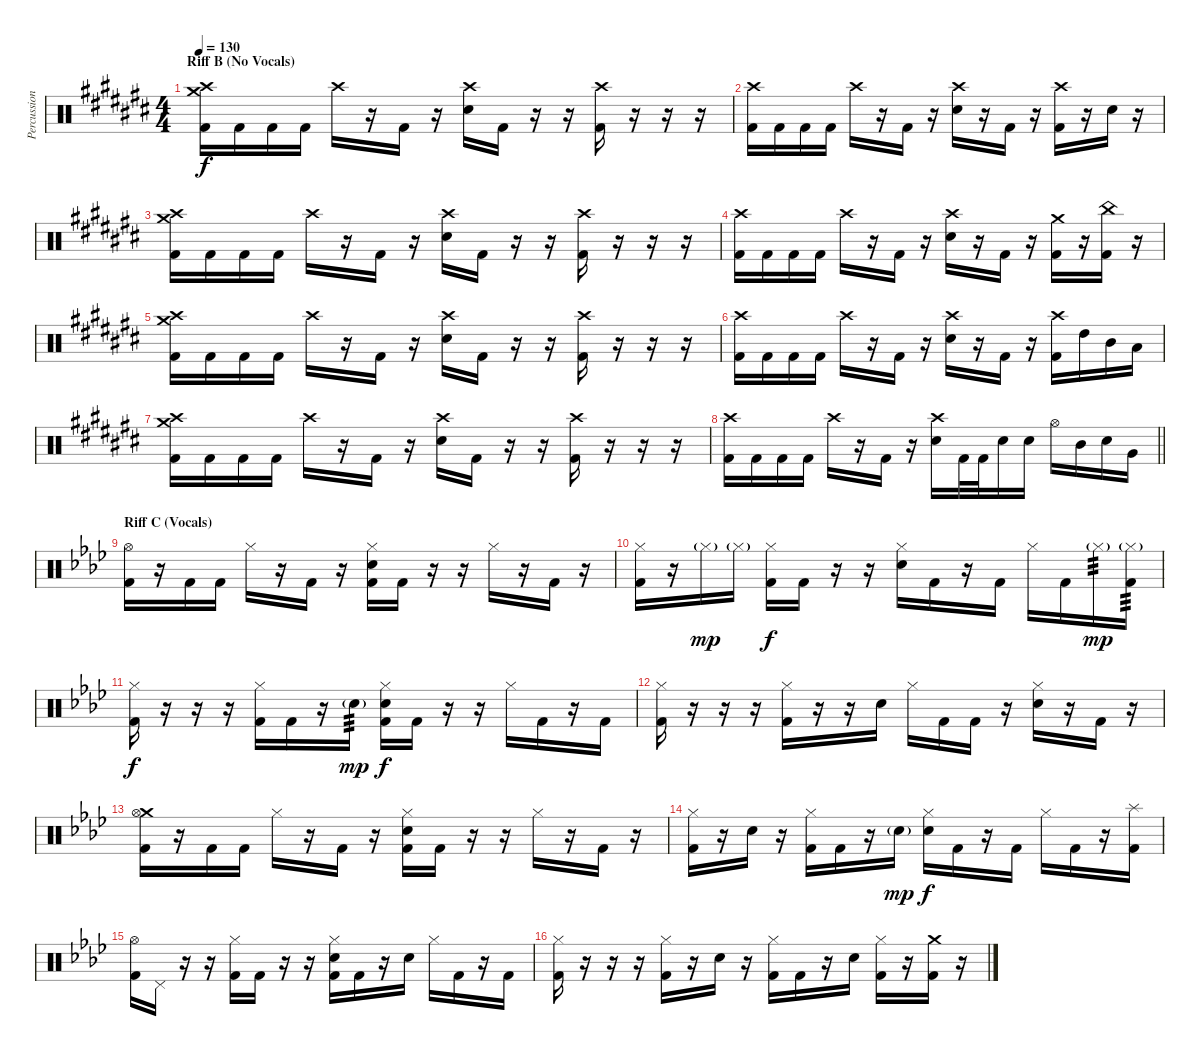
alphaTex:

\track ("Percussion" "Percussion") {instrument percussion}
\staff {score}
\articulation defaults
\ts (4 4)
\section ("" "Riff B (No Vocals)")
\tempo 130
\clef neutral
\ks a#minor
("Crash high (hit)" "Crash medium (hit)" "Kick (hit) 2").16{dy f} "Kick (hit) 2".16 "Kick (hit) 2".16 "Kick (hit) 2".16 "Crash high (hit)".16 r.16 "Kick (hit) 2".16 r.16 ("Crash high (hit)" "Electric Snare (hit)").16 "Kick (hit) 2".16 r.16 r.16 ("Crash high (hit)" "Kick (hit) 2").16 r.16 r.16 r.16 |
("Crash high (hit)" "Kick (hit) 2").16 "Kick (hit) 2".16 "Kick (hit) 2".16 "Kick (hit) 2".16 "Crash high (hit)".16 r.16 "Kick (hit) 2".16 r.16 ("Crash high (hit)" "Electric Snare (hit)").16 r.16 "Kick (hit) 2".16 r.16 ("Crash high (hit)" "Kick (hit) 2").16 r.16 "Electric Snare (hit)".16 r.16 |
("Crash high (hit)" "Crash medium (hit)" "Kick (hit) 2").16 "Kick (hit) 2".16 "Kick (hit) 2".16 "Kick (hit) 2".16 "Crash high (hit)".16 r.16 "Kick (hit) 2".16 r.16 ("Crash high (hit)" "Electric Snare (hit)").16 "Kick (hit) 2".16 r.16 r.16 ("Crash high (hit)" "Kick (hit) 2").16 r.16 r.16 r.16 |
("Crash high (hit)" "Kick (hit) 2").16 "Kick (hit) 2".16 "Kick (hit) 2".16 "Kick (hit) 2".16 "Crash high (hit)".16 r.16 "Kick (hit) 2".16 r.16 ("Crash high (hit)" "Electric Snare (hit)").16 r.16 "Kick (hit) 2".16 r.16 ("Crash medium (hit)" "Kick (hit) 2").16 r.16 ("China (hit)" "Kick (hit) 2").16 r.16 |
("Crash high (hit)" "Crash medium (hit)" "Kick (hit) 2").16 "Kick (hit) 2".16 "Kick (hit) 2".16 "Kick (hit) 2".16 "Crash high (hit)".16 r.16 "Kick (hit) 2".16 r.16 ("Crash high (hit)" "Electric Snare (hit)").16 "Kick (hit) 2".16 r.16 r.16 ("Crash high (hit)" "Kick (hit) 2").16 r.16 r.16 r.16 |
("Crash high (hit)" "Kick (hit) 2").16 "Kick (hit) 2".16 "Kick (hit) 2".16 "Kick (hit) 2".16 "Crash high (hit)".16 r.16 "Kick (hit) 2".16 r.16 ("Crash high (hit)" "Electric Snare (hit)").16 r.16 "Kick (hit) 2".16 r.16 ("Crash high (hit)" "Kick (hit) 2").16 "High Tom (hit)".16 "Mid Tom (hit)".16 "Low Tom (hit)".16 |
("Crash high (hit)" "Crash medium (hit)" "Kick (hit) 2").16 "Kick (hit) 2".16 "Kick (hit) 2".16 "Kick (hit) 2".16 "Crash high (hit)".16 r.16 "Kick (hit) 2".16 r.16 ("Crash high (hit)" "Electric Snare (hit)").16 "Kick (hit) 2".16 r.16 r.16 ("Crash high (hit)" "Kick (hit) 2").16 r.16 r.16 r.16 |
\barLineRight lightlight
("Crash high (hit)" "Kick (hit) 2").16 "Kick (hit) 2".16 "Kick (hit) 2".16 "Kick (hit) 2".16 "Crash high (hit)".16 r.16 "Kick (hit) 2".16 r.16 ("Crash high (hit)" "Electric Snare (hit)").16 "Kick (hit) 2".32 "Kick (hit) 2".32 "Electric Snare (hit)".16 "Electric Snare (hit)".16 "Hi-Hat (open)".16 "Mid Tom (hit)".16 "Electric Snare (hit)".16 "Very Low Tom (hit)".16 |
\section ("" "Riff C (Vocals)")
\ks fminor
("Hi-Hat (open)" "Kick (hit) 2").16 r.16 "Kick (hit) 2".16 "Kick (hit) 2".16 "Hi-Hat (closed)".16 r.16 "Kick (hit) 2".16 r.16 ("Hi-Hat (closed)" "Electric Snare (hit)" "Kick (hit) 2").16 "Kick (hit) 2".16 r.16 r.16 "Hi-Hat (closed)".16 r.16 "Kick (hit) 2".16 r.16 |
("Hi-Hat (closed)" "Kick (hit) 2").16 r.16 "Hi-Hat (closed)"{g}.16{dy mp} "Hi-Hat (closed)"{g}.16 ("Hi-Hat (closed)" "Kick (hit) 2").16{dy f} "Kick (hit) 2".16 r.16 r.16 ("Hi-Hat (closed)" "Electric Snare (hit)").16 "Kick (hit) 2".16 r.16 "Kick (hit) 2".16 "Hi-Hat (closed)".16 "Kick (hit) 2".16 "Hi-Hat (closed)"{g}.16{tp 3 dy mp} ("Hi-Hat (closed)"{g} "Kick (hit) 2").16{tp 3} |
("Hi-Hat (closed)" "Kick (hit) 2").16{dy f} r.16 r.16 r.16 ("Hi-Hat (closed)" "Kick (hit) 2").16 "Kick (hit) 2".16 r.16 "Electric Snare (hit)"{g}.16{tp 3 dy mp} ("Hi-Hat (closed)" "Electric Snare (hit)" "Kick (hit) 2").16{dy f} "Kick (hit) 2".16 r.16 r.16 "Hi-Hat (closed)".16 "Kick (hit) 2".16 r.16 "Kick (hit) 2".16 |
("Hi-Hat (closed)" "Kick (hit) 2").16 r.16 r.16 r.16 ("Hi-Hat (closed)" "Kick (hit) 2").16 r.16 r.16 "Electric Snare (hit)".16 "Hi-Hat (closed)".16 "Kick (hit) 2".16 "Kick (hit) 2".16 r.16 ("Hi-Hat (closed)" "Electric Snare (hit)").16 r.16 "Kick (hit) 2".16 r.16 |
("Crash medium (hit)" "Hi-Hat (open)" "Kick (hit) 2").16 r.16 "Kick (hit) 2".16 "Kick (hit) 2".16 "Hi-Hat (closed)".16 r.16 "Kick (hit) 2".16 r.16 ("Hi-Hat (closed)" "Electric Snare (hit)" "Kick (hit) 2").16 "Kick (hit) 2".16 r.16 r.16 "Hi-Hat (closed)".16 r.16 "Kick (hit) 2".16 r.16 |
("Hi-Hat (closed)" "Kick (hit) 2").16 r.16 "Electric Snare (hit)".16 r.16 ("Hi-Hat (closed)" "Kick (hit) 2").16 "Kick (hit) 2".16 r.16 "Electric Snare (hit)"{g}.16{dy mp} ("Hi-Hat (closed)" "Electric Snare (hit)").16{dy f} "Kick (hit) 2".16 r.16 "Kick (hit) 2".16 "Hi-Hat (closed)".16 "Kick (hit) 2".16 r.16 ("Splash (hit)" "Kick (hit) 2").16 |
("Hi-Hat (open)" "Kick (hit) 2").16 "Pedal Hi-Hat (hit)".16 r.16 r.16 ("Hi-Hat (closed)" "Kick (hit) 2").16 "Kick (hit) 2".16 r.16 r.16 ("Hi-Hat (closed)" "Electric Snare (hit)" "Kick (hit) 2").16 "Kick (hit) 2".16 r.16 "Electric Snare (hit)".16 "Hi-Hat (closed)".16 "Kick (hit) 2".16 r.16 "Kick (hit) 2".16 |
("Hi-Hat (closed)" "Kick (hit) 2").16 r.16 r.16 r.16 ("Hi-Hat (closed)" "Kick (hit) 2").16 r.16 "Electric Snare (hit)".16 r.16 ("Hi-Hat (closed)" "Kick (hit) 2").16 "Kick (hit) 2".16 r.16 "Electric Snare (hit)".16 ("Hi-Hat (closed)" "Kick (hit) 2").16 r.16 ("Crash medium (hit)" "Kick (hit) 2").16 r.16
